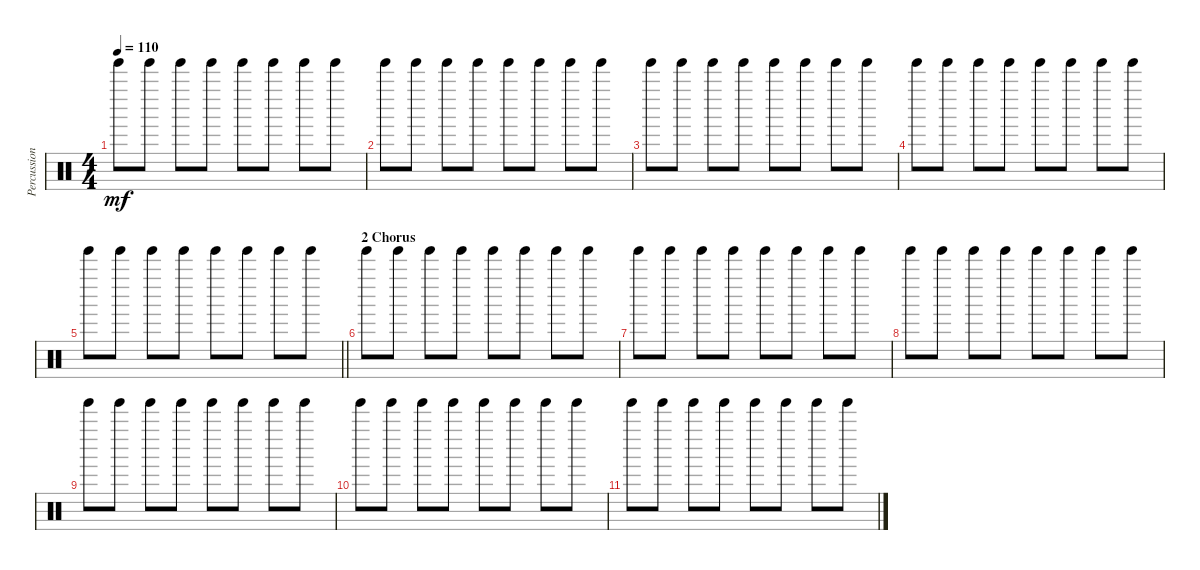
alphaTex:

\track ("Percussion" "Percussion") {instrument percussion}
\staff {score}
\articulation defaults
\ts (4 4)
\tempo 110
\clef neutral
\ks c "Tinkle Bell (hit)".8{dy mf} "Tinkle Bell (hit)".8 "Tinkle Bell (hit)".8 "Tinkle Bell (hit)".8 "Tinkle Bell (hit)".8 "Tinkle Bell (hit)".8 "Tinkle Bell (hit)".8 "Tinkle Bell (hit)".8
|
"Tinkle Bell (hit)".8 "Tinkle Bell (hit)".8 "Tinkle Bell (hit)".8 "Tinkle Bell (hit)".8 "Tinkle Bell (hit)".8 "Tinkle Bell (hit)".8 "Tinkle Bell (hit)".8 "Tinkle Bell (hit)".8 |
"Tinkle Bell (hit)".8 "Tinkle Bell (hit)".8 "Tinkle Bell (hit)".8 "Tinkle Bell (hit)".8 "Tinkle Bell (hit)".8 "Tinkle Bell (hit)".8 "Tinkle Bell (hit)".8 "Tinkle Bell (hit)".8 |
"Tinkle Bell (hit)".8 "Tinkle Bell (hit)".8 "Tinkle Bell (hit)".8 "Tinkle Bell (hit)".8 "Tinkle Bell (hit)".8 "Tinkle Bell (hit)".8 "Tinkle Bell (hit)".8 "Tinkle Bell (hit)".8 |
\barLineRight lightlight "Tinkle Bell (hit)".8 "Tinkle Bell (hit)".8 "Tinkle Bell (hit)".8 "Tinkle Bell (hit)".8 "Tinkle Bell (hit)".8 "Tinkle Bell (hit)".8 "Tinkle Bell (hit)".8 "Tinkle Bell (hit)".8
|
\section ("" "2 Chorus")
"Tinkle Bell (hit)".8 "Tinkle Bell (hit)".8 "Tinkle Bell (hit)".8 "Tinkle Bell (hit)".8 "Tinkle Bell (hit)".8 "Tinkle Bell (hit)".8 "Tinkle Bell (hit)".8 "Tinkle Bell (hit)".8 |
"Tinkle Bell (hit)".8 "Tinkle Bell (hit)".8 "Tinkle Bell (hit)".8 "Tinkle Bell (hit)".8 "Tinkle Bell (hit)".8 "Tinkle Bell (hit)".8 "Tinkle Bell (hit)".8 "Tinkle Bell (hit)".8 |
"Tinkle Bell (hit)".8 "Tinkle Bell (hit)".8 "Tinkle Bell (hit)".8 "Tinkle Bell (hit)".8 "Tinkle Bell (hit)".8 "Tinkle Bell (hit)".8 "Tinkle Bell (hit)".8 "Tinkle Bell (hit)".8 |
"Tinkle Bell (hit)".8 "Tinkle Bell (hit)".8 "Tinkle Bell (hit)".8 "Tinkle Bell (hit)".8 "Tinkle Bell (hit)".8 "Tinkle Bell (hit)".8 "Tinkle Bell (hit)".8 "Tinkle Bell (hit)".8 |
"Tinkle Bell (hit)".8 "Tinkle Bell (hit)".8 "Tinkle Bell (hit)".8 "Tinkle Bell (hit)".8 "Tinkle Bell (hit)".8 "Tinkle Bell (hit)".8 "Tinkle Bell (hit)".8 "Tinkle Bell (hit)".8 |
"Tinkle Bell (hit)".8 "Tinkle Bell (hit)".8 "Tinkle Bell (hit)".8 "Tinkle Bell (hit)".8 "Tinkle Bell (hit)".8 "Tinkle Bell (hit)".8 "Tinkle Bell (hit)".8 "Tinkle Bell (hit)".8
